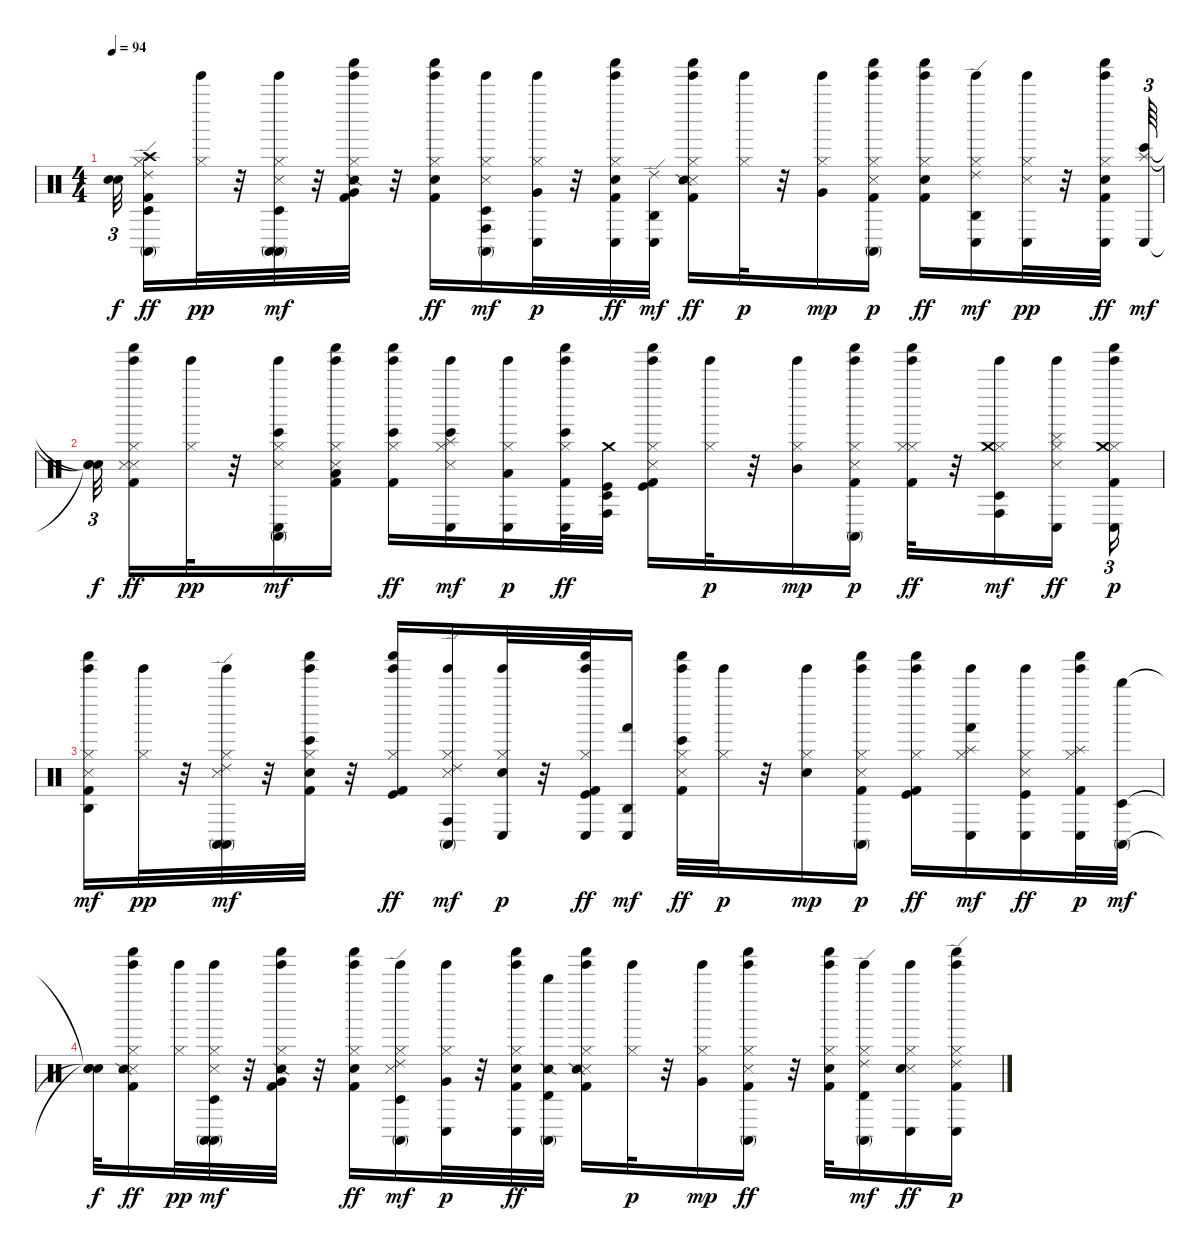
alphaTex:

\track "" {instrument percussion}
\staff {score}
\articulation defaults
\ts (4 4)
\tempo 94
\clef neutral
\ks c
("Snare (hit)"{t} "Snare (hit)"{t}).32{tu (3 2) dy f beam splitsecondary} ("Conga high (mute)" "Timbale low (hit)" "Ride (edge) 2" "Crash high (hit)" "Kick (hit) 2" "Hi-Hat (closed)").16{dy ff} ("Hi-Hat (closed)" "Tinkle Bell (hit)").32{dy pp} r.32 ("Hi-Hat (closed)" "Tinkle Bell (hit)" "Conga high (mute)" "Snare (side stick) 3" "Conga high (mute)" "Timbale low (hit)").32{dy mf} r.32 ("Kick (hit) 2" "Hi-Hat (closed)" "Tinkle Bell (hit)" "Shaker (hit)" "Snare (side stick) 2" "Very Low Tom (hit)").32 r.32 ("Kick (hit) 2" "Hi-Hat (closed)" "Tinkle Bell (hit)" "Shaker (hit)" "Snare (hit) 2").16{dy ff} ("Hi-Hat (closed)" "Tinkle Bell (hit)" "Conga high (hit)" "Snare (side stick) 3" "Timbale low (hit)" "Conga high (mute)").16{dy mf} ("Hi-Hat (closed)" "Tinkle Bell (hit)" "Conga low (hit)" "Very Low Tom (hit)").32{dy p} r.32 ("Kick (hit) 2" "Hi-Hat (closed)" "Tinkle Bell (hit)" "Shaker (hit)" "Conga low (hit)" "Snare (hit) 2").32{dy ff volume 7} ("Conga low (hit)" "Agogo high (hit)" "Ride (edge) 2").32{dy mf volume 6} ("Kick (hit) 2" "Hi-Hat (closed)" "Tinkle Bell (hit)" "Shaker (hit)" "Snare (side stick) 3" "Snare (side stick) 2").16{dy ff} ("Hi-Hat (closed)" "Tinkle Bell (hit)").32{dy p} r.32 ("Hi-Hat (closed)" "Tinkle Bell (hit)" "Very Low Tom (hit)").16{dy mp} ("Conga high (mute)" "Kick (hit) 2" "Hi-Hat (closed)" "Tinkle Bell (hit)" "Shaker (hit)" "Snare (side stick) 3").16{dy p} ("Kick (hit) 2" "Hi-Hat (closed)" "Tinkle Bell (hit)" "Shaker (hit)" "Snare (hit) 2").16{dy ff} ("Hi-Hat (closed)" "Tinkle Bell (hit)" "Conga low (hit)" "Ride (edge) 2" "Agogo high (hit)").16{dy mf} ("Hi-Hat (closed)" "Tinkle Bell (hit)" "Conga low (hit)" "Snare (side stick) 3").32{dy pp} r.32 ("Kick (hit) 2" "Hi-Hat (closed)" "Tinkle Bell (hit)" "Shaker (hit)" "Conga low (hit)" "Snare (hit) 2").32{dy ff} ("Bongo High (hit)" "Conga low (hit)" "Splash (hit)").64{tu (3 2) dy mf volume 6} |
("Snare (hit)"{t} "Snare (hit)"{t} "Snare (hit)"{t}).32{tu (3 2) dy f beam splitsecondary} ("Kick (hit) 2" "Hi-Hat (closed)" "Tinkle Bell (hit)" "Shaker (hit)" "Snare (side stick) 3" "Metronome (hit)").16{dy ff} ("Hi-Hat (closed)" "Tinkle Bell (hit)").32{dy pp} r.32 ("Hi-Hat (closed)" "Tinkle Bell (hit)" "Conga high (mute)" "Snare (side stick) 3" "Bongo High (hit)" "Conga low (hit)").16{dy mf} ("Kick (hit) 2" "Hi-Hat (closed)" "Tinkle Bell (hit)" "Shaker (hit)" "Metronome (hit)" "Low Tom (hit)").16 ("Kick (hit) 2" "Hi-Hat (closed)" "Tinkle Bell (hit)" "Shaker (hit)" "Bongo High (hit)").16{dy ff} ("Hi-Hat (closed)" "Tinkle Bell (hit)" "Snare (side stick) 3" "Conga low (hit)" "Bongo High (hit)" "Splash (hit)").16{dy mf} ("Hi-Hat (closed)" "Tinkle Bell (hit)" "Conga low (hit)" "Low Tom (hit)").16{dy p} ("Kick (hit) 2" "Hi-Hat (closed)" "Tinkle Bell (hit)" "Shaker (hit)" "Conga low (hit)" "Bongo High (hit)").32{dy ff volume 7} ("Conga high (hit)" "Timbale low (hit)" "Crash medium (hit)" "Kick (hit)").32{volume 6} ("Kick (hit) 2" "Hi-Hat (closed)" "Tinkle Bell (hit)" "Shaker (hit)" "Snare (side stick) 3" "Kick (hit)").16 ("Hi-Hat (closed)" "Tinkle Bell (hit)").32{dy p} r.32 ("Hi-Hat (closed)" "Tinkle Bell (hit)" "Mid Tom (hit)").16{dy mp} ("Conga high (mute)" "Kick (hit) 2" "Hi-Hat (closed)" "Tinkle Bell (hit)" "Shaker (hit)" "Snare (side stick) 3").16{dy p} ("Kick (hit) 2" "Hi-Hat (closed)" "Tinkle Bell (hit)" "Shaker (hit)" "Hi-Hat (closed)").32{dy ff} r.32 ("Hi-Hat (closed)" "Tinkle Bell (hit)" "Conga high (hit)" "Crash medium (hit)" "Timbale low (hit)").16{dy mf} ("Hi-Hat (closed)" "Tinkle Bell (hit)" "Conga low (hit)" "Snare (side stick) 3" "Cymbal (hit)").16{dy ff beam splitsecondary} ("Kick (hit) 2" "Hi-Hat (closed)" "Tinkle Bell (hit)" "Shaker (hit)" "Conga low (hit)" "Crash medium (hit)").16{tu (3 2) dy p volume 7} |
("Agogo high (hit)" "Kick (hit) 2" "Hi-Hat (closed)" "Tinkle Bell (hit)" "Shaker (hit)" "Snare (side stick) 3").16{dy mf} ("Hi-Hat (closed)" "Tinkle Bell (hit)").32{dy pp} r.32 ("Hi-Hat (closed)" "Tinkle Bell (hit)" "Conga high (mute)" "Snare (side stick) 3" "Ride (edge) 2" "Conga high (mute)").32{dy mf} r.32 ("Kick (hit) 2" "Hi-Hat (closed)" "Tinkle Bell (hit)" "Shaker (hit)" "Bongo High (hit)" "Electric Snare (hit)").32 r.32 ("Kick (hit) 2" "Hi-Hat (closed)" "Tinkle Bell (hit)" "Shaker (hit)" "Kick (hit)").16{dy ff} ("Hi-Hat (closed)" "Tinkle Bell (hit)" "Conga high (hit)" "Snare (side stick) 3" "Conga high (mute)" "Ride (edge) 2").16{dy mf} ("Hi-Hat (closed)" "Tinkle Bell (hit)" "Conga low (hit)" "Electric Snare (hit)").32{dy p} r.32 ("Kick (hit) 2" "Hi-Hat (closed)" "Tinkle Bell (hit)" "Shaker (hit)" "Conga low (hit)" "Kick (hit)").32{dy ff volume 7} ("Hand (hit)" "Conga low (hit)" "Agogo high (hit)").16{dy mf volume 6} ("Kick (hit) 2" "Hi-Hat (closed)" "Tinkle Bell (hit)" "Shaker (hit)" "Snare (side stick) 3" "Bongo High (hit)").32{dy ff} ("Hi-Hat (closed)" "Tinkle Bell (hit)").32{dy p} r.32 ("Hi-Hat (closed)" "Tinkle Bell (hit)" "Electric Snare (hit)").16{dy mp} ("Conga high (mute)" "Kick (hit) 2" "Hi-Hat (closed)" "Tinkle Bell (hit)" "Shaker (hit)" "Snare (side stick) 3").16{dy p} ("Kick (hit) 2" "Hi-Hat (closed)" "Tinkle Bell (hit)" "Shaker (hit)" "Kick (hit)").16{dy ff} ("Hi-Hat (closed)" "Tinkle Bell (hit)" "Hand (hit)" "Splash (hit)" "Conga low (hit)").16{dy mf} ("Hi-Hat (closed)" "Tinkle Bell (hit)" "Conga low (hit)" "Snare (side stick) 3" "Kick (hit)").16{dy ff} ("Kick (hit) 2" "Hi-Hat (closed)" "Tinkle Bell (hit)" "Shaker (hit)" "Conga low (hit)" "Splash (hit)").32{dy p volume 7} ("Conga high (mute)" "Timbale low (hit)" "Whistle high (hit)").32{dy mf volume 6} |
("Snare (hit)"{t} "Snare (hit)"{t} "Snare (hit)"{t}).32{dy f} ("Kick (hit) 2" "Hi-Hat (closed)" "Tinkle Bell (hit)" "Shaker (hit)" "Snare (side stick) 3" "Snare (side stick) 2").16{dy ff} ("Hi-Hat (closed)" "Tinkle Bell (hit)").32{dy pp} ("Hi-Hat (closed)" "Tinkle Bell (hit)" "Conga high (mute)" "Snare (side stick) 3" "Conga high (mute)" "Timbale low (hit)").32{dy mf} r.32 ("Kick (hit) 2" "Hi-Hat (closed)" "Tinkle Bell (hit)" "Shaker (hit)" "Snare (side stick) 2" "Very Low Tom (hit)").32 r.32 ("Kick (hit) 2" "Hi-Hat (closed)" "Tinkle Bell (hit)" "Shaker (hit)" "Snare (hit) 2").16{dy ff} ("Hi-Hat (closed)" "Tinkle Bell (hit)" "Snare (side stick) 3" "Timbale low (hit)" "Conga high (mute)" "Ride (edge) 2").16{dy mf} ("Hi-Hat (closed)" "Tinkle Bell (hit)" "Conga low (hit)" "Very Low Tom (hit)").32{dy p} r.32 ("Kick (hit) 2" "Hi-Hat (closed)" "Tinkle Bell (hit)" "Shaker (hit)" "Conga low (hit)" "Snare (hit) 2").32{dy ff} ("Conga high (mute)" "Timbale high (hit)" "Whistle high (hit)" "Snare (side stick) 2").32{volume 6} ("Kick (hit) 2" "Hi-Hat (closed)" "Tinkle Bell (hit)" "Shaker (hit)" "Snare (side stick) 3" "Snare (side stick) 2").16 ("Hi-Hat (closed)" "Tinkle Bell (hit)").32{dy p} r.32 ("Hi-Hat (closed)" "Tinkle Bell (hit)" "Very Low Tom (hit)").16{dy mp} ("Kick (hit) 2" "Hi-Hat (closed)" "Tinkle Bell (hit)" "Shaker (hit)" "Conga high (mute)" "Snare (side stick) 3").16{dy ff} r.32 ("Kick (hit) 2" "Hi-Hat (closed)" "Tinkle Bell (hit)" "Shaker (hit)" "Snare (hit) 2").32 ("Hi-Hat (closed)" "Tinkle Bell (hit)" "Conga high (mute)" "Ride (edge) 2" "Timbale high (hit)").16{dy mf} ("Hi-Hat (closed)" "Tinkle Bell (hit)" "Conga low (hit)" "Snare (side stick) 3" "Snare (hit) 2").16{dy ff} ("Kick (hit) 2" "Hi-Hat (closed)" "Tinkle Bell (hit)" "Shaker (hit)" "Conga low (hit)" "Ride (edge) 2").16{dy p volume 7}
